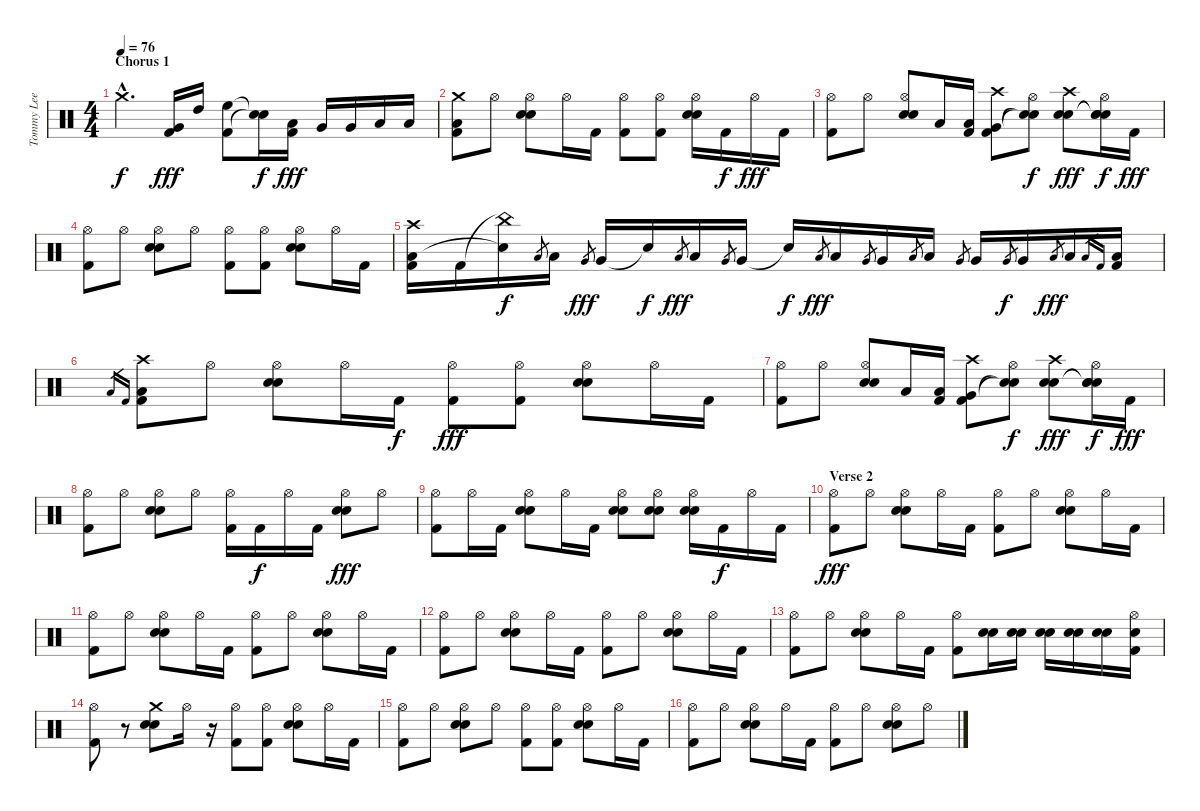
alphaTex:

\track ("Tommy Lee" "Tommy Lee") {instrument percussion}
\staff {score}
\articulation defaults
\ts (4 4)
\section ("" "Chorus 1")
\tempo 76
\clef neutral
\ks c "Crash medium (hit)"{hac}.4{d dy f}
("Very Low Tom (hit)" "Kick (hit) 2").16{dy fff} "High Tom (hit)".16 ("High Floor Tom (hit)" "Kick (hit) 2").8 ("Snare (hit)"{t} "Snare (hit)"{t}).16{dy f} ("Low Floor Tom (hit)" "Kick (hit) 2").16{dy fff} "Very Low Tom (hit)".16 "Very Low Tom (hit)".16 "Low Tom (hit)".16 "Low Tom (hit)".16 |
("Crash medium (hit)" "Low Floor Tom (hit)" "Kick (hit) 2").8 "Hi-Hat (open)".8 ("Hi-Hat (open)" "Snare (hit) 2" "Electric Snare (hit)").8 "Hi-Hat (open)".16 "Kick (hit) 2".16 ("Hi-Hat (open)" "Kick (hit) 2").8 ("Hi-Hat (open)" "Kick (hit) 2").8 ("Hi-Hat (open)" "Snare (hit) 2" "Electric Snare (hit)").16 "Kick (hit) 2".16{dy f} "Hi-Hat (open)".16{dy fff} "Kick (hit) 2".16 |
("Hi-Hat (open)" "Kick (hit) 2").8 "Hi-Hat (open)".8 ("Hi-Hat (open)" "Snare (hit) 2" "Electric Snare (hit)").8 "Low Floor Tom (hit)".16 ("Low Floor Tom (hit)" "Kick (hit) 2").16 ("Crash high (hit)" "Very Low Tom (hit)" "Kick (hit) 2").8 ("Hi-Hat (open)" "Snare (hit)"{t} "Snare (hit)"{t}).8{dy f} ("Crash high (hit)" "Snare (hit) 2" "Electric Snare (hit)").8{dy fff} ("Hi-Hat (open)" "Snare (hit)"{t} "Snare (hit)"{t} "Snare (hit)").16{dy f} "Kick (hit) 2".16{dy fff} |
("Hi-Hat (open)" "Kick (hit) 2").8 "Hi-Hat (open)".8 ("Hi-Hat (open)" "Snare (hit) 2" "Electric Snare (hit)").8 "Hi-Hat (open)".8 ("Hi-Hat (open)" "Kick (hit) 2").8 ("Hi-Hat (open)" "Kick (hit) 2").8 ("Hi-Hat (open)" "Snare (hit) 2" "Electric Snare (hit)").8 "Hi-Hat (open)".16 "Kick (hit) 2".16 |
("Crash high (hit)" "Low Floor Tom (hit)" "Kick (hit) 2").16 "Kick (hit) 2".16 ("China (hit)"{t} "Snare (hit)"{t}).16{dy f} "Low Floor Tom (hit)".8{gr} "Low Floor Tom (hit)".16 "Very Low Tom (hit)".8{gr dy fff} "Very Low Tom (hit)".16 "Snare (hit)"{t}.16{dy f} "Low Floor Tom (hit)".8{gr dy fff} "Low Floor Tom (hit)".16 "Very Low Tom (hit)".8{gr} "Very Low Tom (hit)".16 "Snare (hit) 2"{t}.16{dy f} "Low Floor Tom (hit)".8{gr dy fff} "Low Floor Tom (hit)".16 "Very Low Tom (hit)".8{gr} "Very Low Tom (hit)".16 "Low Floor Tom (hit)".8{gr} "Low Floor Tom (hit)".16 "Very Low Tom (hit)".8{gr} "Very Low Tom (hit)".16 "Very Low Tom (hit)".8{gr dy f} "Very Low Tom (hit)".16 "Low Floor Tom (hit)".8{gr dy fff} "Low Floor Tom (hit)".16 "Low Floor Tom (hit)".16{gr} "Kick (hit) 2".16{gr} ("Low Floor Tom (hit)" "Kick (hit) 2").16 |
"Low Floor Tom (hit)".16{gr} "Kick (hit) 2".16{gr} ("Crash high (hit)" "Low Floor Tom (hit)" "Kick (hit) 2").8 "Hi-Hat (open)".8 ("Hi-Hat (open)" "Snare (hit) 2" "Electric Snare (hit)").8 "Hi-Hat (open)".16 "Kick (hit) 2".16{dy f} ("Hi-Hat (open)" "Kick (hit) 2").8{dy fff} ("Hi-Hat (open)" "Kick (hit) 2").8 ("Hi-Hat (open)" "Snare (hit) 2" "Electric Snare (hit)").8 "Hi-Hat (open)".16 "Kick (hit) 2".16 |
("Hi-Hat (open)" "Kick (hit) 2").8 "Hi-Hat (open)".8 ("Hi-Hat (open)" "Snare (hit) 2" "Electric Snare (hit)").8 "Low Floor Tom (hit)".16 ("Low Floor Tom (hit)" "Kick (hit) 2").16 ("Crash high (hit)" "Very Low Tom (hit)" "Kick (hit) 2").8 ("Hi-Hat (open)" "Snare (hit)"{t} "Snare (hit)"{t}).8{dy f} ("Crash high (hit)" "Snare (hit) 2" "Electric Snare (hit)").8{dy fff} ("Hi-Hat (open)" "Snare (hit)"{t} "Snare (hit)"{t} "Snare (hit)").16{dy f} "Kick (hit) 2".16{dy fff} |
("Hi-Hat (open)" "Kick (hit) 2").8 "Hi-Hat (open)".8 ("Hi-Hat (open)" "Snare (hit) 2" "Electric Snare (hit)").8 "Hi-Hat (open)".8 ("Hi-Hat (open)" "Kick (hit) 2").16 "Kick (hit) 2".16{dy f} "Hi-Hat (open)".16 "Kick (hit) 2".16 ("Hi-Hat (open)" "Snare (hit) 2" "Electric Snare (hit)").8{dy fff} "Hi-Hat (open)".8 |
("Hi-Hat (open)" "Kick (hit) 2").8 "Hi-Hat (open)".16 "Kick (hit) 2".16 ("Hi-Hat (open)" "Snare (hit) 2" "Electric Snare (hit)").8 "Hi-Hat (open)".16 "Kick (hit) 2".16 ("Hi-Hat (open)" "Snare (hit) 2" "Electric Snare (hit)").8 ("Hi-Hat (open)" "Snare (hit) 2" "Electric Snare (hit)").8 ("Hi-Hat (open)" "Snare (hit) 2" "Electric Snare (hit)").16 "Kick (hit) 2".16{dy f} "Hi-Hat (open)".16 "Kick (hit) 2".16 |
\section ("" "Verse 2")
("Hi-Hat (open)" "Kick (hit) 2").8{dy fff} "Hi-Hat (open)".8 ("Hi-Hat (open)" "Snare (hit) 2" "Electric Snare (hit)").8 "Hi-Hat (open)".16 "Kick (hit) 2".16 ("Hi-Hat (open)" "Kick (hit) 2").8 "Hi-Hat (open)".8 ("Hi-Hat (open)" "Snare (hit) 2" "Electric Snare (hit)").8 "Hi-Hat (open)".16 "Kick (hit) 2".16 |
("Hi-Hat (open)" "Kick (hit) 2").8 "Hi-Hat (open)".8 ("Hi-Hat (open)" "Snare (hit) 2" "Electric Snare (hit)").8 "Hi-Hat (open)".16 "Kick (hit) 2".16 ("Hi-Hat (open)" "Kick (hit) 2").8 "Hi-Hat (open)".8 ("Hi-Hat (open)" "Snare (hit) 2" "Electric Snare (hit)").8 "Hi-Hat (open)".16 "Kick (hit) 2".16 |
("Hi-Hat (open)" "Kick (hit) 2").8 "Hi-Hat (open)".8 ("Hi-Hat (open)" "Snare (hit) 2" "Electric Snare (hit)").8 "Hi-Hat (open)".16 "Kick (hit) 2".16 ("Hi-Hat (open)" "Kick (hit) 2").8 "Hi-Hat (open)".8 ("Hi-Hat (open)" "Snare (hit) 2" "Electric Snare (hit)").8 "Hi-Hat (open)".16 "Kick (hit) 2".16 |
("Hi-Hat (open)" "Kick (hit) 2").8 "Hi-Hat (open)".8 ("Hi-Hat (open)" "Snare (hit) 2" "Electric Snare (hit)").8 "Hi-Hat (open)".16 "Kick (hit) 2".16 ("Hi-Hat (open)" "Kick (hit) 2").8 ("Snare (hit) 2" "Electric Snare (hit)").16 ("Snare (hit) 2" "Electric Snare (hit)").16 ("Snare (hit) 2" "Electric Snare (hit)").16 ("Snare (hit) 2" "Electric Snare (hit)").16 ("Snare (hit) 2" "Electric Snare (hit)").16 ("Hi-Hat (open)" "Snare (hit) 2" "Kick (hit) 2").16 |
("Hi-Hat (open)" "Kick (hit) 2").8 r.8 ("Crash medium (hit)" "Snare (hit) 2" "Electric Snare (hit)").8 "Hi-Hat (open)".16 r.16 ("Hi-Hat (open)" "Kick (hit) 2").8 ("Hi-Hat (open)" "Kick (hit) 2").8 ("Hi-Hat (open)" "Snare (hit) 2" "Electric Snare (hit)").8 "Hi-Hat (open)".16 "Kick (hit) 2".16 |
("Hi-Hat (open)" "Kick (hit) 2").8 "Hi-Hat (open)".8 ("Hi-Hat (open)" "Snare (hit) 2" "Electric Snare (hit)").8 "Hi-Hat (open)".8 ("Hi-Hat (open)" "Kick (hit) 2").8 ("Hi-Hat (open)" "Kick (hit) 2").8 ("Hi-Hat (open)" "Snare (hit) 2" "Electric Snare (hit)").8 "Hi-Hat (open)".16 "Kick (hit) 2".16 |
("Hi-Hat (open)" "Kick (hit) 2").8 "Hi-Hat (open)".8 ("Hi-Hat (open)" "Snare (hit) 2" "Electric Snare (hit)").8 "Hi-Hat (open)".16 "Kick (hit) 2".16 ("Hi-Hat (open)" "Kick (hit) 2").8 "Hi-Hat (open)".8 ("Hi-Hat (open)" "Snare (hit) 2" "Electric Snare (hit)").8 "Hi-Hat (open)".8
